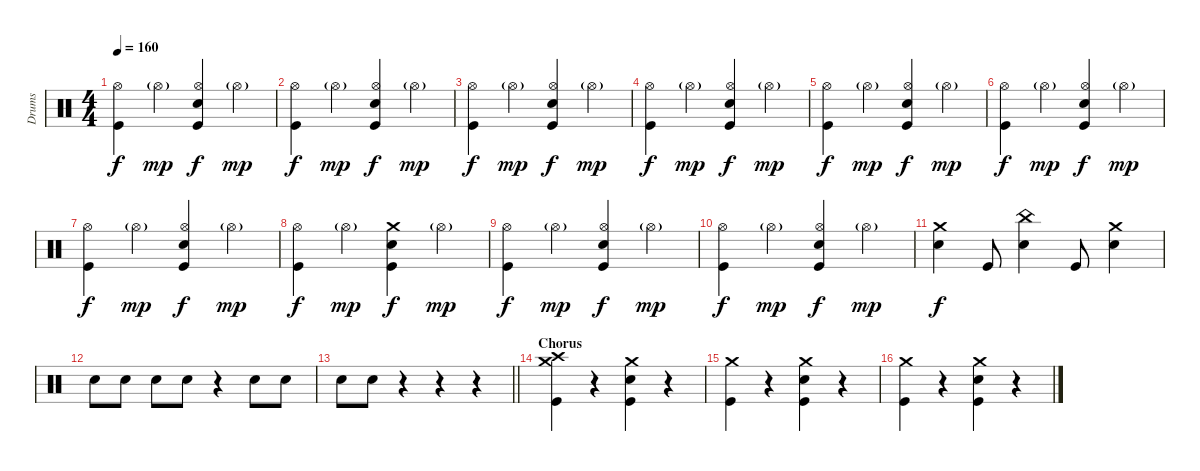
\track ("Drums" "Drums") {instrument percussion}
\staff {score}
\articulation defaults
\ts (4 4)
\tempo 160
\clef neutral
\ks c
("Kick (hit)" "Hi-Hat (open)").4{dy f} "Hi-Hat (open)"{g}.4{dy mp} ("Kick (hit)" "Electric Snare (hit)" "Hi-Hat (open)").4{dy f} "Hi-Hat (open)"{g}.4{dy mp} |
("Kick (hit)" "Hi-Hat (open)").4{dy f} "Hi-Hat (open)"{g}.4{dy mp} ("Kick (hit)" "Electric Snare (hit)" "Hi-Hat (open)").4{dy f} "Hi-Hat (open)"{g}.4{dy mp} |
("Kick (hit)" "Hi-Hat (open)").4{dy f} "Hi-Hat (open)"{g}.4{dy mp} ("Kick (hit)" "Electric Snare (hit)" "Hi-Hat (open)").4{dy f} "Hi-Hat (open)"{g}.4{dy mp} |
("Kick (hit)" "Hi-Hat (open)").4{dy f} "Hi-Hat (open)"{g}.4{dy mp} ("Kick (hit)" "Electric Snare (hit)" "Hi-Hat (open)").4{dy f} "Hi-Hat (open)"{g}.4{dy mp} |
("Kick (hit)" "Hi-Hat (open)").4{dy f} "Hi-Hat (open)"{g}.4{dy mp} ("Kick (hit)" "Electric Snare (hit)" "Hi-Hat (open)").4{dy f} "Hi-Hat (open)"{g}.4{dy mp} |
("Kick (hit)" "Hi-Hat (open)").4{dy f} "Hi-Hat (open)"{g}.4{dy mp} ("Kick (hit)" "Electric Snare (hit)" "Hi-Hat (open)").4{dy f} "Hi-Hat (open)"{g}.4{dy mp} |
("Kick (hit)" "Hi-Hat (open)").4{dy f} "Hi-Hat (open)"{g}.4{dy mp} ("Kick (hit)" "Electric Snare (hit)" "Hi-Hat (open)").4{dy f} "Hi-Hat (open)"{g}.4{dy mp} |
("Kick (hit)" "Hi-Hat (open)").4{dy f} "Hi-Hat (open)"{g}.4{dy mp} ("Kick (hit)" "Electric Snare (hit)" "Crash medium (hit)").4{dy f} "Hi-Hat (open)"{g}.4{dy mp} |
("Kick (hit)" "Hi-Hat (open)").4{dy f} "Hi-Hat (open)"{g}.4{dy mp} ("Kick (hit)" "Electric Snare (hit)" "Hi-Hat (open)").4{dy f} "Hi-Hat (open)"{g}.4{dy mp} |
("Kick (hit)" "Hi-Hat (open)").4{dy f} "Hi-Hat (open)"{g}.4{dy mp} ("Kick (hit)" "Electric Snare (hit)" "Hi-Hat (open)").4{dy f} "Hi-Hat (open)"{g}.4{dy mp} |
("Electric Snare (hit)" "Crash medium (hit)").4{dy f} "Kick (hit)".8 ("Electric Snare (hit)" "China (hit)").4 "Kick (hit)".8 ("Electric Snare (hit)" "Crash medium (hit)").4 |
"Electric Snare (hit)".8 "Electric Snare (hit)".8 "Electric Snare (hit)".8 "Electric Snare (hit)".8 r.4 "Electric Snare (hit)".8 "Electric Snare (hit)".8 |
\barLineRight lightlight "Electric Snare (hit)".8 "Electric Snare (hit)".8
r.4 r.4 r.4 |
\section ("" "Chorus")
("Kick (hit)" "Crash high (hit)" "Crash medium (hit)").4 r.4 ("Kick (hit)" "Electric Snare (hit)" "Crash medium (hit)").4 r.4 |
("Kick (hit)" "Crash medium (hit)").4 r.4 ("Kick (hit)" "Electric Snare (hit)" "Crash medium (hit)").4 r.4 |
("Kick (hit)" "Crash medium (hit)").4 r.4 ("Kick (hit)" "Electric Snare (hit)" "Crash medium (hit)").4 r.4
